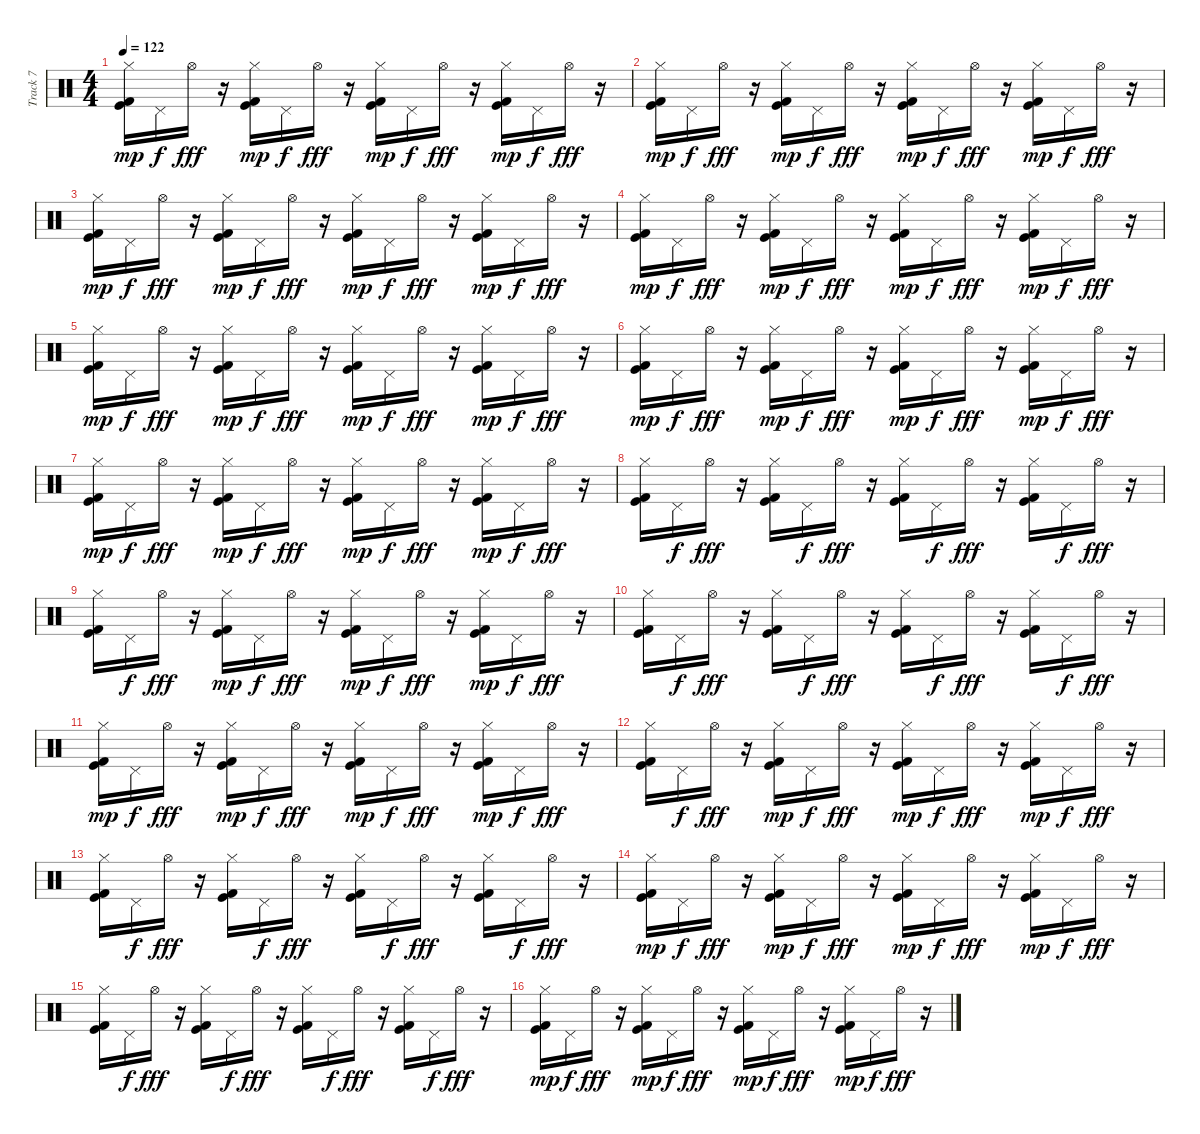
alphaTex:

\track ("Track 7" "Track 7") {instrument percussion}
\staff {score}
\articulation defaults
\ts (4 4)
\tempo 122
\clef neutral
\ks c
("Kick (hit)" "Kick (hit) 2" "Hi-Hat (closed)").16{dy mp} "Pedal Hi-Hat (hit)".16{dy f} "Hi-Hat (open)".16{dy fff} r.16 ("Kick (hit) 2" "Kick (hit)" "Hi-Hat (closed)").16{dy mp} "Pedal Hi-Hat (hit)".16{dy f} "Hi-Hat (open)".16{dy fff} r.16 ("Kick (hit) 2" "Kick (hit)" "Hi-Hat (closed)").16{dy mp} "Pedal Hi-Hat (hit)".16{dy f} "Hi-Hat (open)".16{dy fff} r.16 ("Kick (hit) 2" "Kick (hit)" "Hi-Hat (closed)").16{dy mp} "Pedal Hi-Hat (hit)".16{dy f} "Hi-Hat (open)".16{dy fff} r.16 |
("Kick (hit)" "Kick (hit) 2" "Hi-Hat (closed)").16{dy mp} "Pedal Hi-Hat (hit)".16{dy f} "Hi-Hat (open)".16{dy fff} r.16 ("Kick (hit) 2" "Kick (hit)" "Hi-Hat (closed)").16{dy mp} "Pedal Hi-Hat (hit)".16{dy f} "Hi-Hat (open)".16{dy fff} r.16 ("Kick (hit) 2" "Kick (hit)" "Hi-Hat (closed)").16{dy mp} "Pedal Hi-Hat (hit)".16{dy f} "Hi-Hat (open)".16{dy fff} r.16 ("Kick (hit) 2" "Kick (hit)" "Hi-Hat (closed)").16{dy mp} "Pedal Hi-Hat (hit)".16{dy f} "Hi-Hat (open)".16{dy fff} r.16 |
("Kick (hit)" "Kick (hit) 2" "Hi-Hat (closed)").16{dy mp} "Pedal Hi-Hat (hit)".16{dy f} "Hi-Hat (open)".16{dy fff} r.16 ("Kick (hit) 2" "Kick (hit)" "Hi-Hat (closed)").16{dy mp} "Pedal Hi-Hat (hit)".16{dy f} "Hi-Hat (open)".16{dy fff} r.16 ("Kick (hit) 2" "Kick (hit)" "Hi-Hat (closed)").16{dy mp} "Pedal Hi-Hat (hit)".16{dy f} "Hi-Hat (open)".16{dy fff} r.16 ("Kick (hit) 2" "Kick (hit)" "Hi-Hat (closed)").16{dy mp} "Pedal Hi-Hat (hit)".16{dy f} "Hi-Hat (open)".16{dy fff} r.16 |
("Kick (hit)" "Kick (hit) 2" "Hi-Hat (closed)").16{dy mp} "Pedal Hi-Hat (hit)".16{dy f} "Hi-Hat (open)".16{dy fff} r.16 ("Kick (hit) 2" "Kick (hit)" "Hi-Hat (closed)").16{dy mp} "Pedal Hi-Hat (hit)".16{dy f} "Hi-Hat (open)".16{dy fff} r.16 ("Kick (hit) 2" "Kick (hit)" "Hi-Hat (closed)").16{dy mp} "Pedal Hi-Hat (hit)".16{dy f} "Hi-Hat (open)".16{dy fff} r.16 ("Kick (hit) 2" "Kick (hit)" "Hi-Hat (closed)").16{dy mp} "Pedal Hi-Hat (hit)".16{dy f} "Hi-Hat (open)".16{dy fff} r.16 |
("Kick (hit)" "Kick (hit) 2" "Hi-Hat (closed)").16{dy mp} "Pedal Hi-Hat (hit)".16{dy f} "Hi-Hat (open)".16{dy fff} r.16 ("Kick (hit) 2" "Kick (hit)" "Hi-Hat (closed)").16{dy mp} "Pedal Hi-Hat (hit)".16{dy f} "Hi-Hat (open)".16{dy fff} r.16 ("Kick (hit) 2" "Kick (hit)" "Hi-Hat (closed)").16{dy mp} "Pedal Hi-Hat (hit)".16{dy f} "Hi-Hat (open)".16{dy fff} r.16 ("Kick (hit) 2" "Kick (hit)" "Hi-Hat (closed)").16{dy mp} "Pedal Hi-Hat (hit)".16{dy f} "Hi-Hat (open)".16{dy fff} r.16 |
("Kick (hit)" "Kick (hit) 2" "Hi-Hat (closed)").16{dy mp} "Pedal Hi-Hat (hit)".16{dy f} "Hi-Hat (open)".16{dy fff} r.16 ("Kick (hit) 2" "Kick (hit)" "Hi-Hat (closed)").16{dy mp} "Pedal Hi-Hat (hit)".16{dy f} "Hi-Hat (open)".16{dy fff} r.16 ("Kick (hit) 2" "Kick (hit)" "Hi-Hat (closed)").16{dy mp} "Pedal Hi-Hat (hit)".16{dy f} "Hi-Hat (open)".16{dy fff} r.16 ("Kick (hit) 2" "Kick (hit)" "Hi-Hat (closed)").16{dy mp} "Pedal Hi-Hat (hit)".16{dy f} "Hi-Hat (open)".16{dy fff} r.16 |
("Kick (hit)" "Kick (hit) 2" "Hi-Hat (closed)").16{dy mp} "Pedal Hi-Hat (hit)".16{dy f} "Hi-Hat (open)".16{dy fff} r.16 ("Kick (hit) 2" "Kick (hit)" "Hi-Hat (closed)").16{dy mp} "Pedal Hi-Hat (hit)".16{dy f} "Hi-Hat (open)".16{dy fff} r.16 ("Kick (hit) 2" "Kick (hit)" "Hi-Hat (closed)").16{dy mp} "Pedal Hi-Hat (hit)".16{dy f} "Hi-Hat (open)".16{dy fff} r.16 ("Kick (hit) 2" "Kick (hit)" "Hi-Hat (closed)").16{dy mp} "Pedal Hi-Hat (hit)".16{dy f} "Hi-Hat (open)".16{dy fff} r.16 |
("Hi-Hat (closed)" "Kick (hit) 2" "Kick (hit)").16 "Pedal Hi-Hat (hit)".16{dy f} "Hi-Hat (open)".16{dy fff} r.16 ("Hi-Hat (closed)" "Kick (hit)" "Kick (hit) 2").16 "Pedal Hi-Hat (hit)".16{dy f} "Hi-Hat (open)".16{dy fff} r.16 ("Hi-Hat (closed)" "Kick (hit)" "Kick (hit) 2").16 "Pedal Hi-Hat (hit)".16{dy f} "Hi-Hat (open)".16{dy fff} r.16 ("Hi-Hat (closed)" "Kick (hit)" "Kick (hit) 2").16 "Pedal Hi-Hat (hit)".16{dy f} "Hi-Hat (open)".16{dy fff} r.16 |
("Kick (hit) 2" "Hi-Hat (closed)" "Kick (hit)").16 "Pedal Hi-Hat (hit)".16{dy f} "Hi-Hat (open)".16{dy fff} r.16 ("Kick (hit) 2" "Kick (hit)" "Hi-Hat (closed)").16{dy mp} "Pedal Hi-Hat (hit)".16{dy f} "Hi-Hat (open)".16{dy fff} r.16 ("Kick (hit) 2" "Kick (hit)" "Hi-Hat (closed)").16{dy mp} "Pedal Hi-Hat (hit)".16{dy f} "Hi-Hat (open)".16{dy fff} r.16 ("Kick (hit) 2" "Kick (hit)" "Hi-Hat (closed)").16{dy mp} "Pedal Hi-Hat (hit)".16{dy f} "Hi-Hat (open)".16{dy fff} r.16 |
("Hi-Hat (closed)" "Kick (hit) 2" "Kick (hit)").16 "Pedal Hi-Hat (hit)".16{dy f} "Hi-Hat (open)".16{dy fff} r.16 ("Hi-Hat (closed)" "Kick (hit)" "Kick (hit) 2").16 "Pedal Hi-Hat (hit)".16{dy f} "Hi-Hat (open)".16{dy fff} r.16 ("Hi-Hat (closed)" "Kick (hit)" "Kick (hit) 2").16 "Pedal Hi-Hat (hit)".16{dy f} "Hi-Hat (open)".16{dy fff} r.16 ("Hi-Hat (closed)" "Kick (hit)" "Kick (hit) 2").16 "Pedal Hi-Hat (hit)".16{dy f} "Hi-Hat (open)".16{dy fff} r.16 |
("Kick (hit)" "Kick (hit) 2" "Hi-Hat (closed)").16{dy mp} "Pedal Hi-Hat (hit)".16{dy f} "Hi-Hat (open)".16{dy fff} r.16 ("Kick (hit) 2" "Kick (hit)" "Hi-Hat (closed)").16{dy mp} "Pedal Hi-Hat (hit)".16{dy f} "Hi-Hat (open)".16{dy fff} r.16 ("Kick (hit) 2" "Kick (hit)" "Hi-Hat (closed)").16{dy mp} "Pedal Hi-Hat (hit)".16{dy f} "Hi-Hat (open)".16{dy fff} r.16 ("Kick (hit) 2" "Kick (hit)" "Hi-Hat (closed)").16{dy mp} "Pedal Hi-Hat (hit)".16{dy f} "Hi-Hat (open)".16{dy fff} r.16 |
("Kick (hit) 2" "Hi-Hat (closed)" "Kick (hit)").16 "Pedal Hi-Hat (hit)".16{dy f} "Hi-Hat (open)".16{dy fff} r.16 ("Kick (hit) 2" "Kick (hit)" "Hi-Hat (closed)").16{dy mp} "Pedal Hi-Hat (hit)".16{dy f} "Hi-Hat (open)".16{dy fff} r.16 ("Kick (hit) 2" "Kick (hit)" "Hi-Hat (closed)").16{dy mp} "Pedal Hi-Hat (hit)".16{dy f} "Hi-Hat (open)".16{dy fff} r.16 ("Kick (hit) 2" "Kick (hit)" "Hi-Hat (closed)").16{dy mp} "Pedal Hi-Hat (hit)".16{dy f} "Hi-Hat (open)".16{dy fff} r.16 |
("Kick (hit)" "Hi-Hat (closed)" "Kick (hit) 2").16 "Pedal Hi-Hat (hit)".16{dy f} "Hi-Hat (open)".16{dy fff} r.16 ("Hi-Hat (closed)" "Kick (hit)" "Kick (hit) 2").16 "Pedal Hi-Hat (hit)".16{dy f} "Hi-Hat (open)".16{dy fff} r.16 ("Hi-Hat (closed)" "Kick (hit)" "Kick (hit) 2").16 "Pedal Hi-Hat (hit)".16{dy f} "Hi-Hat (open)".16{dy fff} r.16 ("Hi-Hat (closed)" "Kick (hit)" "Kick (hit) 2").16 "Pedal Hi-Hat (hit)".16{dy f} "Hi-Hat (open)".16{dy fff} r.16 |
("Kick (hit)" "Kick (hit) 2" "Hi-Hat (closed)").16{dy mp} "Pedal Hi-Hat (hit)".16{dy f} "Hi-Hat (open)".16{dy fff} r.16 ("Kick (hit) 2" "Kick (hit)" "Hi-Hat (closed)").16{dy mp} "Pedal Hi-Hat (hit)".16{dy f} "Hi-Hat (open)".16{dy fff} r.16 ("Kick (hit) 2" "Kick (hit)" "Hi-Hat (closed)").16{dy mp} "Pedal Hi-Hat (hit)".16{dy f} "Hi-Hat (open)".16{dy fff} r.16 ("Kick (hit) 2" "Kick (hit)" "Hi-Hat (closed)").16{dy mp} "Pedal Hi-Hat (hit)".16{dy f} "Hi-Hat (open)".16{dy fff} r.16 |
("Hi-Hat (closed)" "Kick (hit) 2" "Kick (hit)").16 "Pedal Hi-Hat (hit)".16{dy f} "Hi-Hat (open)".16{dy fff} r.16 ("Hi-Hat (closed)" "Kick (hit)" "Kick (hit) 2").16 "Pedal Hi-Hat (hit)".16{dy f} "Hi-Hat (open)".16{dy fff} r.16 ("Hi-Hat (closed)" "Kick (hit)" "Kick (hit) 2").16 "Pedal Hi-Hat (hit)".16{dy f} "Hi-Hat (open)".16{dy fff} r.16 ("Hi-Hat (closed)" "Kick (hit)" "Kick (hit) 2").16 "Pedal Hi-Hat (hit)".16{dy f} "Hi-Hat (open)".16{dy fff} r.16 |
("Kick (hit)" "Kick (hit) 2" "Hi-Hat (closed)").16{dy mp} "Pedal Hi-Hat (hit)".16{dy f} "Hi-Hat (open)".16{dy fff} r.16 ("Kick (hit) 2" "Kick (hit)" "Hi-Hat (closed)").16{dy mp} "Pedal Hi-Hat (hit)".16{dy f} "Hi-Hat (open)".16{dy fff} r.16 ("Kick (hit) 2" "Kick (hit)" "Hi-Hat (closed)").16{dy mp} "Pedal Hi-Hat (hit)".16{dy f} "Hi-Hat (open)".16{dy fff} r.16 ("Kick (hit) 2" "Kick (hit)" "Hi-Hat (closed)").16{dy mp} "Pedal Hi-Hat (hit)".16{dy f} "Hi-Hat (open)".16{dy fff} r.16
